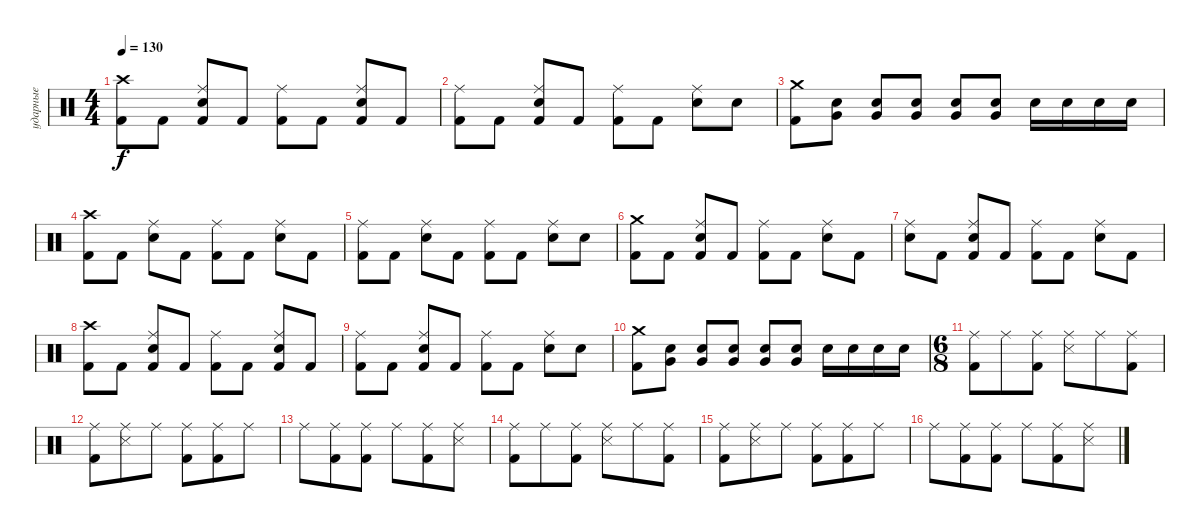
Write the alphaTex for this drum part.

\track ("ударные" "ударные") {instrument percussion}
\staff {score}
\articulation defaults
\ts (4 4)
\tempo 130
\clef neutral
\ks c
("Kick (hit) 2" "Crash high (hit)").8{dy f} "Kick (hit) 2".8 ("Ride (middle)" "Kick (hit) 2" "Electric Snare (hit)").8 "Kick (hit) 2".8 ("Ride (middle)" "Kick (hit) 2").8 "Kick (hit) 2".8 ("Kick (hit) 2" "Electric Snare (hit)" "Ride (middle)").8 "Kick (hit) 2".8 |
("Ride (middle)" "Kick (hit) 2").8 "Kick (hit) 2".8 ("Kick (hit) 2" "Electric Snare (hit)" "Ride (middle)").8 "Kick (hit) 2".8 ("Kick (hit) 2" "Ride (middle)").8 "Kick (hit) 2".8 ("Ride (middle)" "Electric Snare (hit)").8 "Electric Snare (hit)".8 |
("Kick (hit) 2" "Crash medium (hit)").8 ("Electric Snare (hit)" "Very Low Tom (hit)").8 ("Very Low Tom (hit)" "Electric Snare (hit)").8 ("Electric Snare (hit)" "Very Low Tom (hit)").8 ("Electric Snare (hit)" "Very Low Tom (hit)").8 ("Very Low Tom (hit)" "Electric Snare (hit)").8 "Electric Snare (hit)".16 "Electric Snare (hit)".16 "Electric Snare (hit)".16 "Electric Snare (hit)".16 |
("Crash high (hit)" "Kick (hit) 2").8 "Kick (hit) 2".8 ("Ride (middle)" "Electric Snare (hit)").8 "Kick (hit) 2".8 ("Ride (middle)" "Kick (hit) 2").8 "Kick (hit) 2".8 ("Ride (middle)" "Electric Snare (hit)").8 "Kick (hit) 2".8 |
("Kick (hit) 2" "Ride (middle)").8 "Kick (hit) 2".8 ("Ride (middle)" "Electric Snare (hit)").8 "Kick (hit) 2".8 ("Kick (hit) 2" "Ride (middle)").8 "Kick (hit) 2".8 ("Electric Snare (hit)" "Ride (middle)").8 "Electric Snare (hit)".8 |
("Crash medium (hit)" "Kick (hit) 2").8 "Kick (hit) 2".8 ("Ride (middle)" "Kick (hit) 2" "Electric Snare (hit)").8 "Kick (hit) 2".8 ("Kick (hit) 2" "Ride (middle)").8 "Kick (hit) 2".8 ("Ride (middle)" "Electric Snare (hit)").8 "Kick (hit) 2".8 |
("Ride (middle)" "Electric Snare (hit)").8 "Kick (hit) 2".8 ("Ride (middle)" "Electric Snare (hit)" "Kick (hit) 2").8 "Kick (hit) 2".8 ("Ride (middle)" "Kick (hit) 2").8 "Kick (hit) 2".8 ("Ride (middle)" "Electric Snare (hit)").8 "Kick (hit) 2".8 |
("Kick (hit) 2" "Crash high (hit)").8 "Kick (hit) 2".8 ("Ride (middle)" "Kick (hit) 2" "Electric Snare (hit)").8 "Kick (hit) 2".8 ("Ride (middle)" "Kick (hit) 2").8 "Kick (hit) 2".8 ("Kick (hit) 2" "Electric Snare (hit)" "Ride (middle)").8 "Kick (hit) 2".8 |
("Ride (middle)" "Kick (hit) 2").8 "Kick (hit) 2".8 ("Kick (hit) 2" "Electric Snare (hit)" "Ride (middle)").8 "Kick (hit) 2".8 ("Kick (hit) 2" "Ride (middle)").8 "Kick (hit) 2".8 ("Ride (middle)" "Electric Snare (hit)").8 "Electric Snare (hit)".8 |
("Kick (hit) 2" "Crash medium (hit)").8 ("Electric Snare (hit)" "Very Low Tom (hit)").8 ("Very Low Tom (hit)" "Electric Snare (hit)").8 ("Electric Snare (hit)" "Very Low Tom (hit)").8 ("Electric Snare (hit)" "Very Low Tom (hit)").8 ("Very Low Tom (hit)" "Electric Snare (hit)").8 "Electric Snare (hit)".16 "Electric Snare (hit)".16 "Electric Snare (hit)".16 "Electric Snare (hit)".16 |
\ts (6 8)
("Ride (middle)" "Kick (hit) 2").8 "Ride (middle)".8 ("Ride (middle)" "Kick (hit) 2").8 ("Snare (side stick) 3" "Ride (middle)").8 "Ride (middle)".8 ("Kick (hit) 2" "Ride (middle)").8 |
("Ride (middle)" "Kick (hit) 2").8 ("Ride (middle)" "Snare (side stick) 3").8 "Ride (middle)".8 ("Kick (hit) 2" "Ride (middle)").8 ("Ride (middle)" "Kick (hit) 2").8 "Ride (middle)".8 |
"Ride (middle)".8 ("Kick (hit) 2" "Ride (middle)").8 ("Ride (middle)" "Kick (hit) 2").8 "Ride (middle)".8 ("Ride (middle)" "Kick (hit) 2").8 ("Snare (side stick) 3" "Ride (middle)").8 |
("Ride (middle)" "Kick (hit) 2").8 "Ride (middle)".8 ("Ride (middle)" "Kick (hit) 2").8 ("Snare (side stick) 3" "Ride (middle)").8 "Ride (middle)".8 ("Kick (hit) 2" "Ride (middle)").8 |
("Ride (middle)" "Kick (hit) 2").8 ("Ride (middle)" "Snare (side stick) 3").8 "Ride (middle)".8 ("Kick (hit) 2" "Ride (middle)").8 ("Ride (middle)" "Kick (hit) 2").8 "Ride (middle)".8 |
"Ride (middle)".8 ("Kick (hit) 2" "Ride (middle)").8 ("Ride (middle)" "Kick (hit) 2").8 "Ride (middle)".8 ("Ride (middle)" "Kick (hit) 2").8 ("Snare (side stick) 3" "Ride (middle)").8
